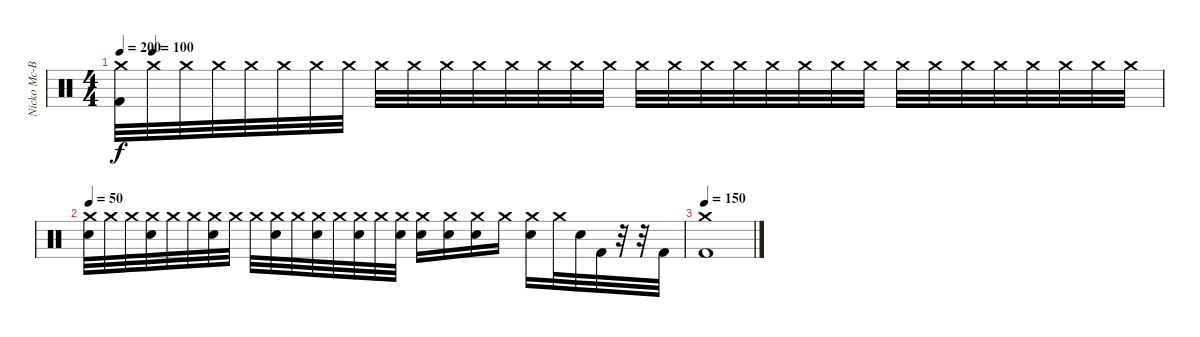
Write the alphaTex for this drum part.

\track ("Nicko Mc-Brain" "Nicko Mc-B") {instrument percussion}
\staff {score}
\articulation defaults
\ts (4 4)
\tempo 200
\tempo (100 0.03125)
\clef neutral
\ks c
("Crash medium (hit)" "Kick (hit) 2").32{dy f} "Crash medium (hit)".32 "Crash medium (hit)".32 "Crash medium (hit)".32 "Crash medium (hit)".32 "Crash medium (hit)".32 "Crash medium (hit)".32 "Crash medium (hit)".32 "Crash medium (hit)".32 "Crash medium (hit)".32 "Crash medium (hit)".32 "Crash medium (hit)".32 "Crash medium (hit)".32 "Crash medium (hit)".32 "Crash medium (hit)".32 "Crash medium (hit)".32 "Crash medium (hit)".32 "Crash medium (hit)".32 "Crash medium (hit)".32 "Crash medium (hit)".32 "Crash medium (hit)".32 "Crash medium (hit)".32 "Crash medium (hit)".32 "Crash medium (hit)".32 "Crash medium (hit)".32 "Crash medium (hit)".32 "Crash medium (hit)".32 "Crash medium (hit)".32 "Crash medium (hit)".32 "Crash medium (hit)".32 "Crash medium (hit)".32 "Crash medium (hit)".32 |
\tempo 50
("Crash medium (hit)" "Snare (hit) 2").32 "Crash medium (hit)".32 "Crash medium (hit)".32 ("Crash medium (hit)" "Snare (hit) 2").32 "Crash medium (hit)".32 "Crash medium (hit)".32 ("Crash medium (hit)" "Snare (hit) 2").32 "Crash medium (hit)".32 "Crash medium (hit)".32 ("Crash medium (hit)" "Snare (hit) 2").32 "Crash medium (hit)".32 ("Crash medium (hit)" "Snare (hit) 2").32 "Crash medium (hit)".32 ("Crash medium (hit)" "Snare (hit) 2").32 "Crash medium (hit)".32 ("Crash medium (hit)" "Snare (hit) 2").32 ("Crash medium (hit)" "Snare (hit) 2").16 ("Crash medium (hit)" "Snare (hit) 2").16 ("Crash medium (hit)" "Snare (hit) 2").16 "Crash medium (hit)".16 ("Crash medium (hit)" "Snare (hit) 2").16 "Crash medium (hit)".32 "Snare (hit) 2".32 "Kick (hit) 2".32 r.32 r.32 "Kick (hit) 2".32 |
\tempo 150
("Crash medium (hit)" "Kick (hit) 2").1
